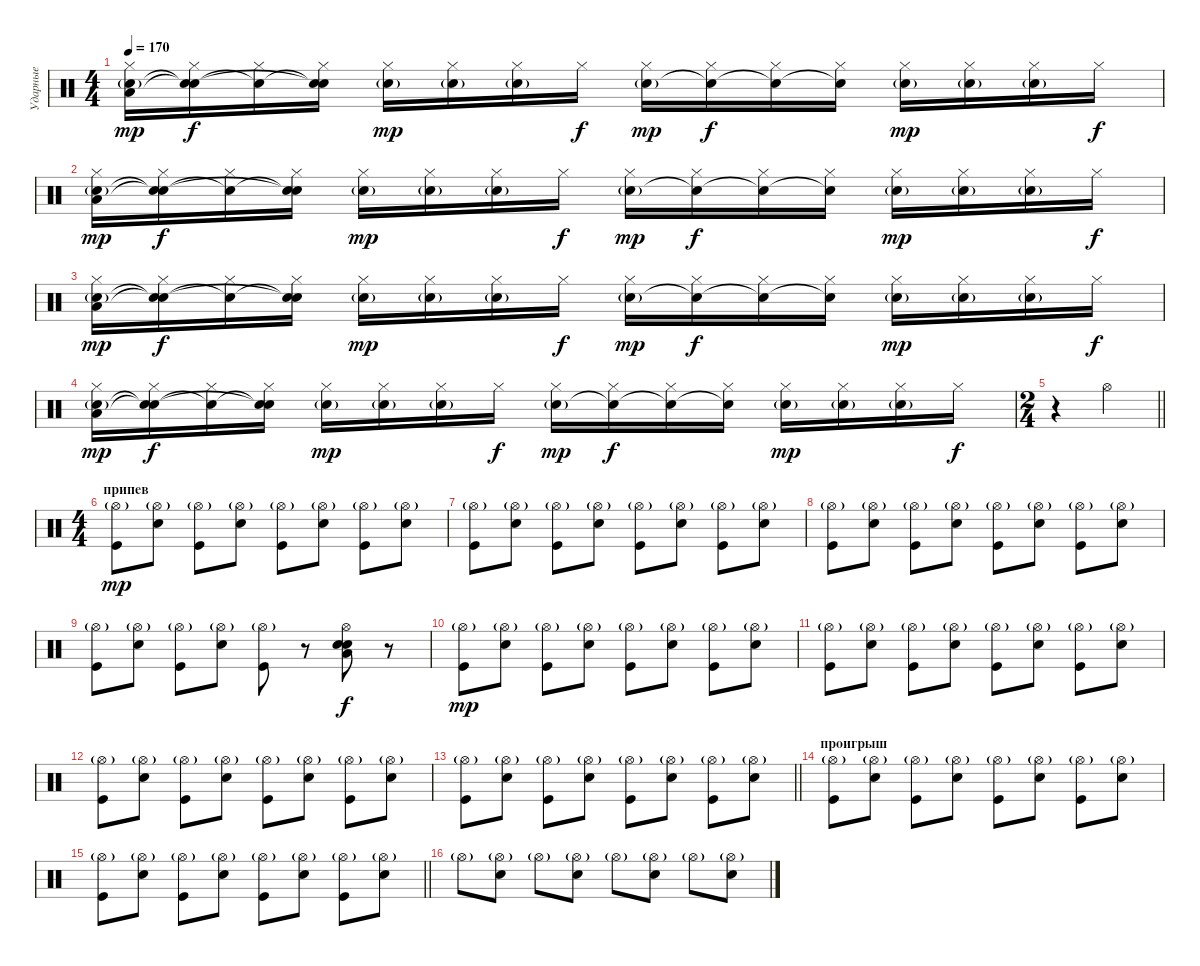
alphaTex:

\track ("Ударные" "Ударные") {instrument percussion}
\staff {score}
\articulation defaults
\ts (4 4)
\tempo 170
\clef neutral
\ks c
("Hi-Hat (closed)" "Low Tom (hit)" "Snare (hit) 2"{g}).16{dy mp} ("Hi-Hat (closed)" "Snare (hit)"{t} "Snare (hit)"{t}).16{dy f} ("Hi-Hat (closed)" "Snare (hit)"{t}).16 ("Hi-Hat (closed)" "Snare (hit) 2"{t} "Snare (hit)"{t}).16 ("Hi-Hat (closed)" "Snare (hit) 2"{g}).16{dy mp} ("Hi-Hat (closed)" "Snare (hit) 2"{g}).16 ("Hi-Hat (closed)" "Snare (hit) 2"{g}).16 "Hi-Hat (closed)".16{dy f} ("Hi-Hat (closed)" "Snare (hit) 2"{g}).16{dy mp} ("Hi-Hat (closed)" "Snare (hit) 2"{t}).16{dy f} ("Hi-Hat (closed)" "Snare (hit) 2"{t}).16 ("Hi-Hat (closed)" "Snare (hit) 2"{t}).16 ("Hi-Hat (closed)" "Snare (hit) 2"{g}).16{dy mp} ("Hi-Hat (closed)" "Snare (hit) 2"{g}).16 ("Hi-Hat (closed)" "Snare (hit) 2"{g}).16 "Hi-Hat (closed)".16{dy f} |
("Hi-Hat (closed)" "Low Tom (hit)" "Snare (hit) 2"{g}).16{dy mp} ("Hi-Hat (closed)" "Snare (hit)"{t} "Snare (hit)"{t}).16{dy f} ("Hi-Hat (closed)" "Snare (hit)"{t}).16 ("Hi-Hat (closed)" "Snare (hit) 2"{t} "Snare (hit)"{t}).16 ("Hi-Hat (closed)" "Snare (hit) 2"{g}).16{dy mp} ("Hi-Hat (closed)" "Snare (hit) 2"{g}).16 ("Hi-Hat (closed)" "Snare (hit) 2"{g}).16 "Hi-Hat (closed)".16{dy f} ("Hi-Hat (closed)" "Snare (hit) 2"{g}).16{dy mp} ("Hi-Hat (closed)" "Snare (hit) 2"{t}).16{dy f} ("Hi-Hat (closed)" "Snare (hit) 2"{t}).16 ("Hi-Hat (closed)" "Snare (hit) 2"{t}).16 ("Hi-Hat (closed)" "Snare (hit) 2"{g}).16{dy mp} ("Hi-Hat (closed)" "Snare (hit) 2"{g}).16 ("Hi-Hat (closed)" "Snare (hit) 2"{g}).16 "Hi-Hat (closed)".16{dy f} |
("Hi-Hat (closed)" "Low Tom (hit)" "Snare (hit) 2"{g}).16{dy mp} ("Hi-Hat (closed)" "Snare (hit)"{t} "Snare (hit)"{t}).16{dy f} ("Hi-Hat (closed)" "Snare (hit)"{t}).16 ("Hi-Hat (closed)" "Snare (hit) 2"{t} "Snare (hit)"{t}).16 ("Hi-Hat (closed)" "Snare (hit) 2"{g}).16{dy mp} ("Hi-Hat (closed)" "Snare (hit) 2"{g}).16 ("Hi-Hat (closed)" "Snare (hit) 2"{g}).16 "Hi-Hat (closed)".16{dy f} ("Hi-Hat (closed)" "Snare (hit) 2"{g}).16{dy mp} ("Hi-Hat (closed)" "Snare (hit) 2"{t}).16{dy f} ("Hi-Hat (closed)" "Snare (hit) 2"{t}).16 ("Hi-Hat (closed)" "Snare (hit) 2"{t}).16 ("Hi-Hat (closed)" "Snare (hit) 2"{g}).16{dy mp} ("Hi-Hat (closed)" "Snare (hit) 2"{g}).16 ("Hi-Hat (closed)" "Snare (hit) 2"{g}).16 "Hi-Hat (closed)".16{dy f} |
("Hi-Hat (closed)" "Low Tom (hit)" "Snare (hit) 2"{g}).16{dy mp} ("Hi-Hat (closed)" "Snare (hit)"{t} "Snare (hit)"{t}).16{dy f} ("Hi-Hat (closed)" "Snare (hit)"{t}).16 ("Hi-Hat (closed)" "Snare (hit) 2"{t} "Snare (hit)"{t}).16 ("Hi-Hat (closed)" "Snare (hit) 2"{g}).16{dy mp} ("Hi-Hat (closed)" "Snare (hit) 2"{g}).16 ("Hi-Hat (closed)" "Snare (hit) 2"{g}).16 "Hi-Hat (closed)".16{dy f} ("Hi-Hat (closed)" "Snare (hit) 2"{g}).16{dy mp} ("Hi-Hat (closed)" "Snare (hit) 2"{t}).16{dy f} ("Hi-Hat (closed)" "Snare (hit) 2"{t}).16 ("Hi-Hat (closed)" "Snare (hit) 2"{t}).16 ("Hi-Hat (closed)" "Snare (hit) 2"{g}).16{dy mp} ("Hi-Hat (closed)" "Snare (hit) 2"{g}).16 ("Hi-Hat (closed)" "Snare (hit) 2"{g}).16 "Hi-Hat (closed)".16{dy f} |
\ts (2 4)
\barLineRight lightlight
r.4 "Hi-Hat (open)".4 |
\ts (4 4)
\section ("" "припев")
("Hi-Hat (open)"{g} "Kick (hit)").8{dy mp} ("Hi-Hat (open)"{g} "Snare (hit) 2").8 ("Hi-Hat (open)"{g} "Kick (hit)").8 ("Hi-Hat (open)"{g} "Snare (hit) 2").8 ("Hi-Hat (open)"{g} "Kick (hit)").8 ("Hi-Hat (open)"{g} "Snare (hit) 2").8 ("Hi-Hat (open)"{g} "Kick (hit)").8 ("Hi-Hat (open)"{g} "Snare (hit) 2").8 |
("Hi-Hat (open)"{g} "Kick (hit)").8 ("Hi-Hat (open)"{g} "Snare (hit) 2").8 ("Hi-Hat (open)"{g} "Kick (hit)").8 ("Hi-Hat (open)"{g} "Snare (hit) 2").8 ("Hi-Hat (open)"{g} "Kick (hit)").8 ("Hi-Hat (open)"{g} "Snare (hit) 2").8 ("Hi-Hat (open)"{g} "Kick (hit)").8 ("Hi-Hat (open)"{g} "Snare (hit) 2").8 |
("Hi-Hat (open)"{g} "Kick (hit)").8 ("Hi-Hat (open)"{g} "Snare (hit) 2").8 ("Hi-Hat (open)"{g} "Kick (hit)").8 ("Hi-Hat (open)"{g} "Snare (hit) 2").8 ("Hi-Hat (open)"{g} "Kick (hit)").8 ("Hi-Hat (open)"{g} "Snare (hit) 2").8 ("Hi-Hat (open)"{g} "Kick (hit)").8 ("Hi-Hat (open)"{g} "Snare (hit) 2").8 |
("Hi-Hat (open)"{g} "Kick (hit)").8 ("Hi-Hat (open)"{g} "Snare (hit) 2").8 ("Hi-Hat (open)"{g} "Kick (hit)").8 ("Hi-Hat (open)"{g} "Snare (hit) 2").8 ("Hi-Hat (open)"{g} "Kick (hit)").8 r.8 ("Snare (hit) 2" "Snare (hit) 2" "Low Tom (hit)" "Hi-Hat (open)").8{dy f} r.8 |
("Hi-Hat (open)"{g} "Kick (hit)").8{dy mp} ("Hi-Hat (open)"{g} "Snare (hit) 2").8 ("Hi-Hat (open)"{g} "Kick (hit)").8 ("Hi-Hat (open)"{g} "Snare (hit) 2").8 ("Hi-Hat (open)"{g} "Kick (hit)").8 ("Hi-Hat (open)"{g} "Snare (hit) 2").8 ("Hi-Hat (open)"{g} "Kick (hit)").8 ("Hi-Hat (open)"{g} "Snare (hit) 2").8 |
("Hi-Hat (open)"{g} "Kick (hit)").8 ("Hi-Hat (open)"{g} "Snare (hit) 2").8 ("Hi-Hat (open)"{g} "Kick (hit)").8 ("Hi-Hat (open)"{g} "Snare (hit) 2").8 ("Hi-Hat (open)"{g} "Kick (hit)").8 ("Hi-Hat (open)"{g} "Snare (hit) 2").8 ("Hi-Hat (open)"{g} "Kick (hit)").8 ("Hi-Hat (open)"{g} "Snare (hit) 2").8 |
("Hi-Hat (open)"{g} "Kick (hit)").8 ("Hi-Hat (open)"{g} "Snare (hit) 2").8 ("Hi-Hat (open)"{g} "Kick (hit)").8 ("Hi-Hat (open)"{g} "Snare (hit) 2").8 ("Hi-Hat (open)"{g} "Kick (hit)").8 ("Hi-Hat (open)"{g} "Snare (hit) 2").8 ("Hi-Hat (open)"{g} "Kick (hit)").8 ("Hi-Hat (open)"{g} "Snare (hit) 2").8 |
\barLineRight lightlight
("Hi-Hat (open)"{g} "Kick (hit)").8 ("Hi-Hat (open)"{g} "Snare (hit) 2").8 ("Hi-Hat (open)"{g} "Kick (hit)").8 ("Hi-Hat (open)"{g} "Snare (hit) 2").8 ("Hi-Hat (open)"{g} "Kick (hit)").8 ("Hi-Hat (open)"{g} "Snare (hit) 2").8 ("Hi-Hat (open)"{g} "Kick (hit)").8 ("Hi-Hat (open)"{g} "Snare (hit) 2").8 |
\section ("" "проигрыш")
("Hi-Hat (open)"{g} "Kick (hit)").8 ("Hi-Hat (open)"{g} "Snare (hit) 2").8 ("Hi-Hat (open)"{g} "Kick (hit)").8 ("Hi-Hat (open)"{g} "Snare (hit) 2").8 ("Hi-Hat (open)"{g} "Kick (hit)").8 ("Hi-Hat (open)"{g} "Snare (hit) 2").8 ("Hi-Hat (open)"{g} "Kick (hit)").8 ("Hi-Hat (open)"{g} "Snare (hit) 2").8 |
\barLineRight lightlight
("Hi-Hat (open)"{g} "Kick (hit)").8 ("Hi-Hat (open)"{g} "Snare (hit) 2").8 ("Hi-Hat (open)"{g} "Kick (hit)").8 ("Hi-Hat (open)"{g} "Snare (hit) 2").8 ("Hi-Hat (open)"{g} "Kick (hit)").8 ("Hi-Hat (open)"{g} "Snare (hit) 2").8 ("Hi-Hat (open)"{g} "Kick (hit)").8 ("Hi-Hat (open)"{g} "Snare (hit) 2").8 |
"Hi-Hat (open)"{g}.8 ("Hi-Hat (open)"{g} "Snare (hit) 2").8 "Hi-Hat (open)"{g}.8 ("Hi-Hat (open)"{g} "Snare (hit) 2").8 "Hi-Hat (open)"{g}.8 ("Hi-Hat (open)"{g} "Snare (hit) 2").8 "Hi-Hat (open)"{g}.8 ("Hi-Hat (open)"{g} "Snare (hit) 2").8
